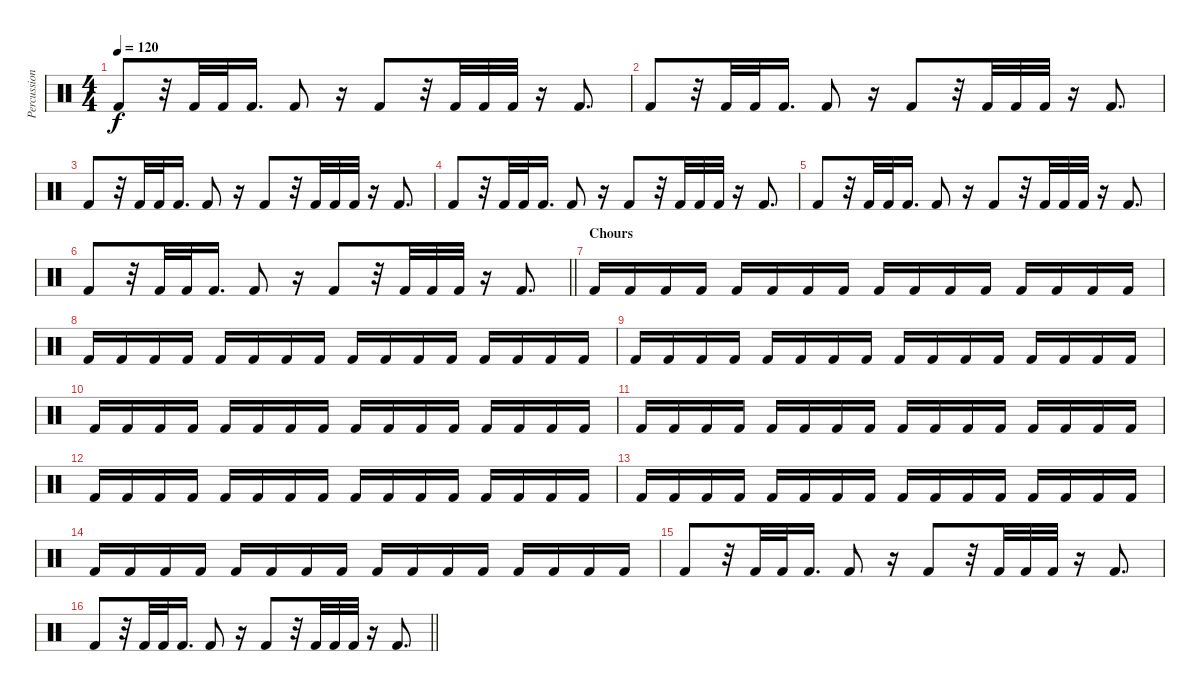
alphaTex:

\track ("Percussioni" "Percussion") {instrument percussion}
\staff
\articulation defaults
\ts (4 4)
\tempo 120
\clef neutral
\ks c "Kick (hit) 2".8{dy f}
r.32 "Kick (hit) 2".32 "Kick (hit) 2".32 "Kick (hit) 2".16{d} "Kick (hit) 2".8 r.16 "Kick (hit) 2".8 r.32 "Kick (hit) 2".32 "Kick (hit) 2".32 "Kick (hit) 2".32 r.16 "Kick (hit) 2".8{d} |
"Kick (hit) 2".8 r.32 "Kick (hit) 2".32 "Kick (hit) 2".32 "Kick (hit) 2".16{d} "Kick (hit) 2".8 r.16 "Kick (hit) 2".8 r.32 "Kick (hit) 2".32 "Kick (hit) 2".32 "Kick (hit) 2".32 r.16 "Kick (hit) 2".8{d} |
"Kick (hit) 2".8 r.32 "Kick (hit) 2".32 "Kick (hit) 2".32 "Kick (hit) 2".16{d} "Kick (hit) 2".8 r.16 "Kick (hit) 2".8 r.32 "Kick (hit) 2".32 "Kick (hit) 2".32 "Kick (hit) 2".32 r.16 "Kick (hit) 2".8{d} |
"Kick (hit) 2".8 r.32 "Kick (hit) 2".32 "Kick (hit) 2".32 "Kick (hit) 2".16{d} "Kick (hit) 2".8 r.16 "Kick (hit) 2".8 r.32 "Kick (hit) 2".32 "Kick (hit) 2".32 "Kick (hit) 2".32 r.16 "Kick (hit) 2".8{d} |
"Kick (hit) 2".8 r.32 "Kick (hit) 2".32 "Kick (hit) 2".32 "Kick (hit) 2".16{d} "Kick (hit) 2".8 r.16 "Kick (hit) 2".8 r.32 "Kick (hit) 2".32 "Kick (hit) 2".32 "Kick (hit) 2".32 r.16 "Kick (hit) 2".8{d} |
\barLineRight lightlight "Kick (hit) 2".8
r.32 "Kick (hit) 2".32 "Kick (hit) 2".32 "Kick (hit) 2".16{d} "Kick (hit) 2".8 r.16 "Kick (hit) 2".8 r.32 "Kick (hit) 2".32 "Kick (hit) 2".32 "Kick (hit) 2".32 r.16 "Kick (hit) 2".8{d} |
\section ("" "Chours")
"Kick (hit) 2".16 "Kick (hit) 2".16 "Kick (hit) 2".16 "Kick (hit) 2".16 "Kick (hit) 2".16 "Kick (hit) 2".16 "Kick (hit) 2".16 "Kick (hit) 2".16 "Kick (hit) 2".16 "Kick (hit) 2".16 "Kick (hit) 2".16 "Kick (hit) 2".16 "Kick (hit) 2".16 "Kick (hit) 2".16 "Kick (hit) 2".16 "Kick (hit) 2".16 |
"Kick (hit) 2".16 "Kick (hit) 2".16 "Kick (hit) 2".16 "Kick (hit) 2".16 "Kick (hit) 2".16 "Kick (hit) 2".16 "Kick (hit) 2".16 "Kick (hit) 2".16 "Kick (hit) 2".16 "Kick (hit) 2".16 "Kick (hit) 2".16 "Kick (hit) 2".16 "Kick (hit) 2".16 "Kick (hit) 2".16 "Kick (hit) 2".16 "Kick (hit) 2".16 |
"Kick (hit) 2".16 "Kick (hit) 2".16 "Kick (hit) 2".16 "Kick (hit) 2".16 "Kick (hit) 2".16 "Kick (hit) 2".16 "Kick (hit) 2".16 "Kick (hit) 2".16 "Kick (hit) 2".16 "Kick (hit) 2".16 "Kick (hit) 2".16 "Kick (hit) 2".16 "Kick (hit) 2".16 "Kick (hit) 2".16 "Kick (hit) 2".16 "Kick (hit) 2".16 |
"Kick (hit) 2".16 "Kick (hit) 2".16 "Kick (hit) 2".16 "Kick (hit) 2".16 "Kick (hit) 2".16 "Kick (hit) 2".16 "Kick (hit) 2".16 "Kick (hit) 2".16 "Kick (hit) 2".16 "Kick (hit) 2".16 "Kick (hit) 2".16 "Kick (hit) 2".16 "Kick (hit) 2".16 "Kick (hit) 2".16 "Kick (hit) 2".16 "Kick (hit) 2".16 |
"Kick (hit) 2".16 "Kick (hit) 2".16 "Kick (hit) 2".16 "Kick (hit) 2".16 "Kick (hit) 2".16 "Kick (hit) 2".16 "Kick (hit) 2".16 "Kick (hit) 2".16 "Kick (hit) 2".16 "Kick (hit) 2".16 "Kick (hit) 2".16 "Kick (hit) 2".16 "Kick (hit) 2".16 "Kick (hit) 2".16 "Kick (hit) 2".16 "Kick (hit) 2".16 |
"Kick (hit) 2".16 "Kick (hit) 2".16 "Kick (hit) 2".16 "Kick (hit) 2".16 "Kick (hit) 2".16 "Kick (hit) 2".16 "Kick (hit) 2".16 "Kick (hit) 2".16 "Kick (hit) 2".16 "Kick (hit) 2".16 "Kick (hit) 2".16 "Kick (hit) 2".16 "Kick (hit) 2".16 "Kick (hit) 2".16 "Kick (hit) 2".16 "Kick (hit) 2".16 |
"Kick (hit) 2".16 "Kick (hit) 2".16 "Kick (hit) 2".16 "Kick (hit) 2".16 "Kick (hit) 2".16 "Kick (hit) 2".16 "Kick (hit) 2".16 "Kick (hit) 2".16 "Kick (hit) 2".16 "Kick (hit) 2".16 "Kick (hit) 2".16 "Kick (hit) 2".16 "Kick (hit) 2".16 "Kick (hit) 2".16 "Kick (hit) 2".16 "Kick (hit) 2".16 |
"Kick (hit) 2".16 "Kick (hit) 2".16 "Kick (hit) 2".16 "Kick (hit) 2".16 "Kick (hit) 2".16 "Kick (hit) 2".16 "Kick (hit) 2".16 "Kick (hit) 2".16 "Kick (hit) 2".16 "Kick (hit) 2".16 "Kick (hit) 2".16 "Kick (hit) 2".16 "Kick (hit) 2".16 "Kick (hit) 2".16 "Kick (hit) 2".16 "Kick (hit) 2".16 |
"Kick (hit) 2".8 r.32 "Kick (hit) 2".32 "Kick (hit) 2".32 "Kick (hit) 2".16{d} "Kick (hit) 2".8 r.16 "Kick (hit) 2".8 r.32 "Kick (hit) 2".32 "Kick (hit) 2".32 "Kick (hit) 2".32 r.16 "Kick (hit) 2".8{d} |
\barLineRight lightlight "Kick (hit) 2".8
r.32 "Kick (hit) 2".32 "Kick (hit) 2".32 "Kick (hit) 2".16{d} "Kick (hit) 2".8 r.16 "Kick (hit) 2".8 r.32 "Kick (hit) 2".32 "Kick (hit) 2".32 "Kick (hit) 2".32 r.16 "Kick (hit) 2".8{d}
